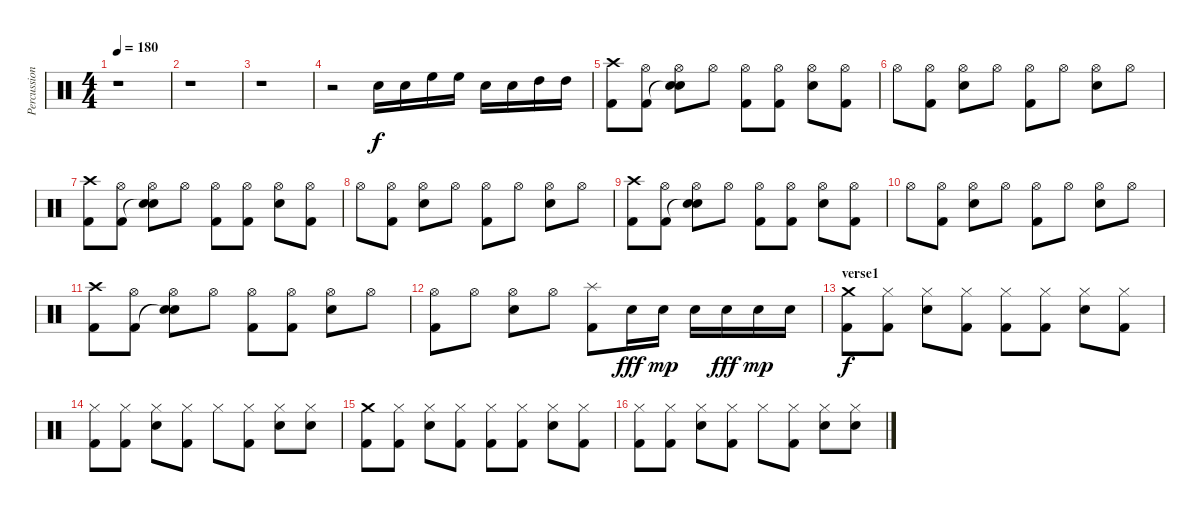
\track ("Percussion" "Percussion") {instrument percussion}
\staff {score}
\articulation defaults
\ts (4 4)
\tempo 180
\clef neutral
\ks c
r.1{dy f} |
r.1 |
r.1 |
r.2 "Electric Snare (hit)".16 "Electric Snare (hit)".16 "High Floor Tom (hit)".16 "High Floor Tom (hit)".16 "Electric Snare (hit)".16 "Electric Snare (hit)".16 "High Tom (hit)".16 "High Tom (hit)".16 |
("Crash high (hit)" "Kick (hit) 2").8 ("Hi-Hat (open)" "Kick (hit) 2").8 ("Hi-Hat (open)" "Snare (hit)"{t} "Electric Snare (hit)").8 "Hi-Hat (open)".8 ("Hi-Hat (open)" "Kick (hit) 2").8 ("Hi-Hat (open)" "Kick (hit) 2").8 ("Hi-Hat (open)" "Electric Snare (hit)").8 ("Hi-Hat (open)" "Kick (hit) 2").8 |
"Hi-Hat (open)".8 ("Hi-Hat (open)" "Kick (hit) 2").8 ("Hi-Hat (open)" "Electric Snare (hit)").8 "Hi-Hat (open)".8 ("Hi-Hat (open)" "Kick (hit) 2").8 "Hi-Hat (open)".8 ("Hi-Hat (open)" "Electric Snare (hit)").8 "Hi-Hat (open)".8 |
("Crash high (hit)" "Kick (hit) 2").8 ("Hi-Hat (open)" "Kick (hit) 2").8 ("Hi-Hat (open)" "Snare (hit)"{t} "Electric Snare (hit)").8 "Hi-Hat (open)".8 ("Hi-Hat (open)" "Kick (hit) 2").8 ("Hi-Hat (open)" "Kick (hit) 2").8 ("Hi-Hat (open)" "Electric Snare (hit)").8 ("Hi-Hat (open)" "Kick (hit) 2").8 |
"Hi-Hat (open)".8 ("Hi-Hat (open)" "Kick (hit) 2").8 ("Hi-Hat (open)" "Electric Snare (hit)").8 "Hi-Hat (open)".8 ("Hi-Hat (open)" "Kick (hit) 2").8 "Hi-Hat (open)".8 ("Hi-Hat (open)" "Electric Snare (hit)").8 "Hi-Hat (open)".8 |
("Crash high (hit)" "Kick (hit) 2").8 ("Hi-Hat (open)" "Kick (hit) 2").8 ("Hi-Hat (open)" "Snare (hit)"{t} "Electric Snare (hit)").8 "Hi-Hat (open)".8 ("Hi-Hat (open)" "Kick (hit) 2").8 ("Hi-Hat (open)" "Kick (hit) 2").8 ("Hi-Hat (open)" "Electric Snare (hit)").8 ("Hi-Hat (open)" "Kick (hit) 2").8 |
"Hi-Hat (open)".8 ("Hi-Hat (open)" "Kick (hit) 2").8 ("Hi-Hat (open)" "Electric Snare (hit)").8 "Hi-Hat (open)".8 ("Hi-Hat (open)" "Kick (hit) 2").8 "Hi-Hat (open)".8 ("Hi-Hat (open)" "Electric Snare (hit)").8 "Hi-Hat (open)".8 |
("Crash high (hit)" "Kick (hit) 2").8 ("Hi-Hat (open)" "Kick (hit) 2").8 ("Hi-Hat (open)" "Snare (hit)"{t} "Electric Snare (hit)").8 "Hi-Hat (open)".8 ("Hi-Hat (open)" "Kick (hit) 2").8 ("Hi-Hat (open)" "Kick (hit) 2").8 ("Hi-Hat (open)" "Electric Snare (hit)").8 "Hi-Hat (open)".8 |
("Hi-Hat (open)" "Kick (hit) 2").8 "Hi-Hat (open)".8 ("Hi-Hat (open)" "Electric Snare (hit)").8 "Hi-Hat (open)".8 ("Splash (hit)" "Kick (hit) 2").8 "Electric Snare (hit)".16{dy fff} "Electric Snare (hit)".16{dy mp} "Electric Snare (hit)".16 "Electric Snare (hit)".16{dy fff} "Electric Snare (hit)".16{dy mp} "Electric Snare (hit)".16 |
\section ("" "verse1")
("Crash medium (hit)" "Kick (hit) 2").8{dy f} ("Hi-Hat (closed)" "Kick (hit) 2").8 ("Hi-Hat (closed)" "Electric Snare (hit)").8 ("Hi-Hat (closed)" "Kick (hit) 2").8 ("Hi-Hat (closed)" "Kick (hit) 2").8 ("Hi-Hat (closed)" "Kick (hit) 2").8 ("Hi-Hat (closed)" "Electric Snare (hit)").8 ("Hi-Hat (closed)" "Kick (hit) 2").8 |
("Hi-Hat (closed)" "Kick (hit) 2").8 ("Hi-Hat (closed)" "Kick (hit) 2").8 ("Hi-Hat (closed)" "Electric Snare (hit)").8 ("Hi-Hat (closed)" "Kick (hit) 2").8 "Hi-Hat (closed)".8 ("Hi-Hat (closed)" "Kick (hit) 2").8 ("Hi-Hat (closed)" "Electric Snare (hit)").8 ("Hi-Hat (closed)" "Electric Snare (hit)").8 |
("Crash medium (hit)" "Kick (hit) 2").8 ("Hi-Hat (closed)" "Kick (hit) 2").8 ("Hi-Hat (closed)" "Electric Snare (hit)").8 ("Hi-Hat (closed)" "Kick (hit) 2").8 ("Hi-Hat (closed)" "Kick (hit) 2").8 ("Hi-Hat (closed)" "Kick (hit) 2").8 ("Hi-Hat (closed)" "Electric Snare (hit)").8 ("Hi-Hat (closed)" "Kick (hit) 2").8 |
("Hi-Hat (closed)" "Kick (hit) 2").8 ("Hi-Hat (closed)" "Kick (hit) 2").8 ("Hi-Hat (closed)" "Electric Snare (hit)").8 ("Hi-Hat (closed)" "Kick (hit) 2").8 "Hi-Hat (closed)".8 ("Hi-Hat (closed)" "Kick (hit) 2").8 ("Hi-Hat (closed)" "Electric Snare (hit)").8 ("Hi-Hat (closed)" "Electric Snare (hit)").8
